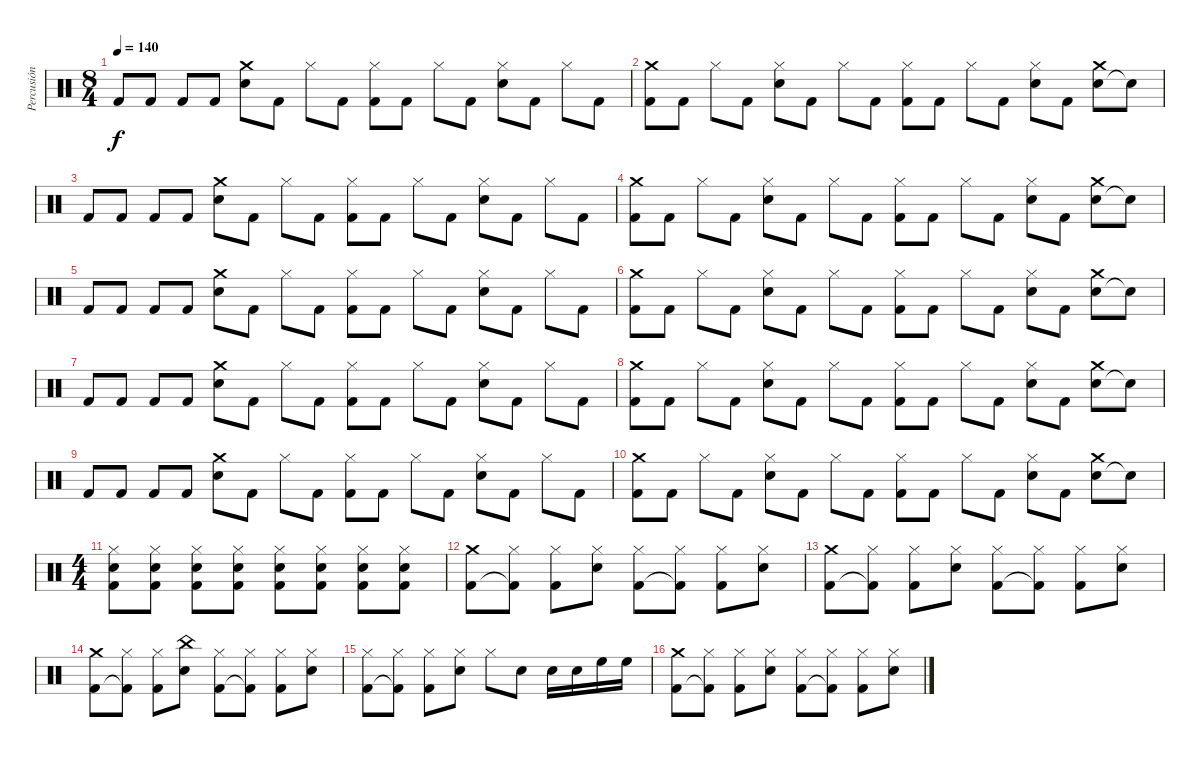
\track ("Percusión" "Percusión") {instrument percussion}
\staff {score}
\articulation defaults
\ts (8 4)
\tempo 140
\clef neutral
\ks c "Kick (hit) 2".8{dy f} "Kick (hit) 2".8 "Kick (hit) 2".8 "Kick (hit) 2".8
("Electric Snare (hit)" "Crash medium (hit)").8 "Kick (hit) 2".8 "Hi-Hat (closed)".8 "Kick (hit) 2".8 ("Kick (hit) 2" "Hi-Hat (closed)").8 "Kick (hit) 2".8 "Hi-Hat (closed)".8 "Kick (hit) 2".8 ("Electric Snare (hit)" "Hi-Hat (closed)").8 "Kick (hit) 2".8 "Hi-Hat (closed)".8 "Kick (hit) 2".8 |
("Kick (hit) 2" "Crash medium (hit)").8 "Kick (hit) 2".8 "Hi-Hat (closed)".8 "Kick (hit) 2".8 ("Electric Snare (hit)" "Hi-Hat (closed)").8 "Kick (hit) 2".8 "Hi-Hat (closed)".8 "Kick (hit) 2".8 ("Kick (hit) 2" "Hi-Hat (closed)").8 "Kick (hit) 2".8 "Hi-Hat (closed)".8 "Kick (hit) 2".8 ("Electric Snare (hit)" "Hi-Hat (closed)").8 "Kick (hit) 2".8 ("Electric Snare (hit)" "Crash medium (hit)").8 "Snare (hit)"{t}.8 |
"Kick (hit) 2".8 "Kick (hit) 2".8 "Kick (hit) 2".8 "Kick (hit) 2".8 ("Electric Snare (hit)" "Crash medium (hit)").8 "Kick (hit) 2".8 "Hi-Hat (closed)".8 "Kick (hit) 2".8 ("Kick (hit) 2" "Hi-Hat (closed)").8 "Kick (hit) 2".8 "Hi-Hat (closed)".8 "Kick (hit) 2".8 ("Electric Snare (hit)" "Hi-Hat (closed)").8 "Kick (hit) 2".8 "Hi-Hat (closed)".8 "Kick (hit) 2".8 |
("Kick (hit) 2" "Crash medium (hit)").8 "Kick (hit) 2".8 "Hi-Hat (closed)".8 "Kick (hit) 2".8 ("Electric Snare (hit)" "Hi-Hat (closed)").8 "Kick (hit) 2".8 "Hi-Hat (closed)".8 "Kick (hit) 2".8 ("Kick (hit) 2" "Hi-Hat (closed)").8 "Kick (hit) 2".8 "Hi-Hat (closed)".8 "Kick (hit) 2".8 ("Electric Snare (hit)" "Hi-Hat (closed)").8 "Kick (hit) 2".8 ("Electric Snare (hit)" "Crash medium (hit)").8 "Snare (hit)"{t}.8 |
"Kick (hit) 2".8 "Kick (hit) 2".8 "Kick (hit) 2".8 "Kick (hit) 2".8 ("Electric Snare (hit)" "Crash medium (hit)").8 "Kick (hit) 2".8 "Hi-Hat (closed)".8 "Kick (hit) 2".8 ("Kick (hit) 2" "Hi-Hat (closed)").8 "Kick (hit) 2".8 "Hi-Hat (closed)".8 "Kick (hit) 2".8 ("Electric Snare (hit)" "Hi-Hat (closed)").8 "Kick (hit) 2".8 "Hi-Hat (closed)".8 "Kick (hit) 2".8 |
("Kick (hit) 2" "Crash medium (hit)").8 "Kick (hit) 2".8 "Hi-Hat (closed)".8 "Kick (hit) 2".8 ("Electric Snare (hit)" "Hi-Hat (closed)").8 "Kick (hit) 2".8 "Hi-Hat (closed)".8 "Kick (hit) 2".8 ("Kick (hit) 2" "Hi-Hat (closed)").8 "Kick (hit) 2".8 "Hi-Hat (closed)".8 "Kick (hit) 2".8 ("Electric Snare (hit)" "Hi-Hat (closed)").8 "Kick (hit) 2".8 ("Electric Snare (hit)" "Crash medium (hit)").8 "Snare (hit)"{t}.8 |
"Kick (hit) 2".8 "Kick (hit) 2".8 "Kick (hit) 2".8 "Kick (hit) 2".8 ("Electric Snare (hit)" "Crash medium (hit)").8 "Kick (hit) 2".8 "Hi-Hat (closed)".8 "Kick (hit) 2".8 ("Kick (hit) 2" "Hi-Hat (closed)").8 "Kick (hit) 2".8 "Hi-Hat (closed)".8 "Kick (hit) 2".8 ("Electric Snare (hit)" "Hi-Hat (closed)").8 "Kick (hit) 2".8 "Hi-Hat (closed)".8 "Kick (hit) 2".8 |
("Kick (hit) 2" "Crash medium (hit)").8 "Kick (hit) 2".8 "Hi-Hat (closed)".8 "Kick (hit) 2".8 ("Electric Snare (hit)" "Hi-Hat (closed)").8 "Kick (hit) 2".8 "Hi-Hat (closed)".8 "Kick (hit) 2".8 ("Kick (hit) 2" "Hi-Hat (closed)").8 "Kick (hit) 2".8 "Hi-Hat (closed)".8 "Kick (hit) 2".8 ("Electric Snare (hit)" "Hi-Hat (closed)").8 "Kick (hit) 2".8 ("Electric Snare (hit)" "Crash medium (hit)").8 "Snare (hit)"{t}.8 |
"Kick (hit) 2".8 "Kick (hit) 2".8 "Kick (hit) 2".8 "Kick (hit) 2".8 ("Electric Snare (hit)" "Crash medium (hit)").8 "Kick (hit) 2".8 "Hi-Hat (closed)".8 "Kick (hit) 2".8 ("Kick (hit) 2" "Hi-Hat (closed)").8 "Kick (hit) 2".8 "Hi-Hat (closed)".8 "Kick (hit) 2".8 ("Electric Snare (hit)" "Hi-Hat (closed)").8 "Kick (hit) 2".8 "Hi-Hat (closed)".8 "Kick (hit) 2".8 |
("Kick (hit) 2" "Crash medium (hit)").8 "Kick (hit) 2".8 "Hi-Hat (closed)".8 "Kick (hit) 2".8 ("Electric Snare (hit)" "Hi-Hat (closed)").8 "Kick (hit) 2".8 "Hi-Hat (closed)".8 "Kick (hit) 2".8 ("Kick (hit) 2" "Hi-Hat (closed)").8 "Kick (hit) 2".8 "Hi-Hat (closed)".8 "Kick (hit) 2".8 ("Electric Snare (hit)" "Hi-Hat (closed)").8 "Kick (hit) 2".8 ("Electric Snare (hit)" "Crash medium (hit)").8 "Snare (hit)"{t}.8 |
\ts (4 4)
("Kick (hit) 2" "Electric Snare (hit)" "Hi-Hat (closed)").8 ("Kick (hit) 2" "Electric Snare (hit)" "Hi-Hat (closed)").8 ("Kick (hit) 2" "Electric Snare (hit)" "Hi-Hat (closed)").8 ("Kick (hit) 2" "Electric Snare (hit)" "Hi-Hat (closed)").8 ("Kick (hit) 2" "Electric Snare (hit)" "Hi-Hat (closed)").8 ("Kick (hit) 2" "Electric Snare (hit)" "Hi-Hat (closed)").8 ("Kick (hit) 2" "Electric Snare (hit)" "Hi-Hat (closed)").8 ("Kick (hit) 2" "Electric Snare (hit)" "Hi-Hat (closed)").8 |
("Kick (hit) 2" "Crash medium (hit)").8 ("Kick (hit) 2"{t} "Hi-Hat (closed)").8 ("Kick (hit) 2" "Hi-Hat (closed)").8 ("Electric Snare (hit)" "Hi-Hat (closed)").8 ("Kick (hit) 2" "Hi-Hat (closed)").8 ("Kick (hit) 2"{t} "Hi-Hat (closed)").8 ("Kick (hit) 2" "Hi-Hat (closed)").8 ("Electric Snare (hit)" "Hi-Hat (closed)").8 |
("Kick (hit) 2" "Crash medium (hit)").8 ("Kick (hit) 2"{t} "Hi-Hat (closed)").8 ("Kick (hit) 2" "Hi-Hat (closed)").8 ("Electric Snare (hit)" "Hi-Hat (closed)").8 ("Kick (hit) 2" "Hi-Hat (closed)").8 ("Kick (hit) 2"{t} "Hi-Hat (closed)").8 ("Kick (hit) 2" "Hi-Hat (closed)").8 ("Electric Snare (hit)" "Hi-Hat (closed)").8 |
("Kick (hit) 2" "Crash medium (hit)").8 ("Kick (hit) 2"{t} "Hi-Hat (closed)").8 ("Kick (hit) 2" "Hi-Hat (closed)").8 ("Electric Snare (hit)" "China (hit)").8 ("Kick (hit) 2" "Hi-Hat (closed)").8 ("Kick (hit) 2"{t} "Hi-Hat (closed)").8 ("Kick (hit) 2" "Hi-Hat (closed)").8 ("Electric Snare (hit)" "Hi-Hat (closed)").8 |
("Kick (hit) 2" "Hi-Hat (closed)").8 ("Kick (hit) 2"{t} "Hi-Hat (closed)").8 ("Kick (hit) 2" "Hi-Hat (closed)").8 ("Electric Snare (hit)" "Hi-Hat (closed)").8 "Hi-Hat (closed)".8 "Electric Snare (hit)".8 "Electric Snare (hit)".16 "Electric Snare (hit)".16 "High Floor Tom (hit)".16 "High Floor Tom (hit)".16 |
("Kick (hit) 2" "Crash medium (hit)").8 ("Kick (hit) 2"{t} "Hi-Hat (closed)").8 ("Kick (hit) 2" "Hi-Hat (closed)").8 ("Electric Snare (hit)" "Hi-Hat (closed)").8 ("Kick (hit) 2" "Hi-Hat (closed)").8 ("Kick (hit) 2"{t} "Hi-Hat (closed)").8 ("Kick (hit) 2" "Hi-Hat (closed)").8 ("Electric Snare (hit)" "Hi-Hat (closed)").8
